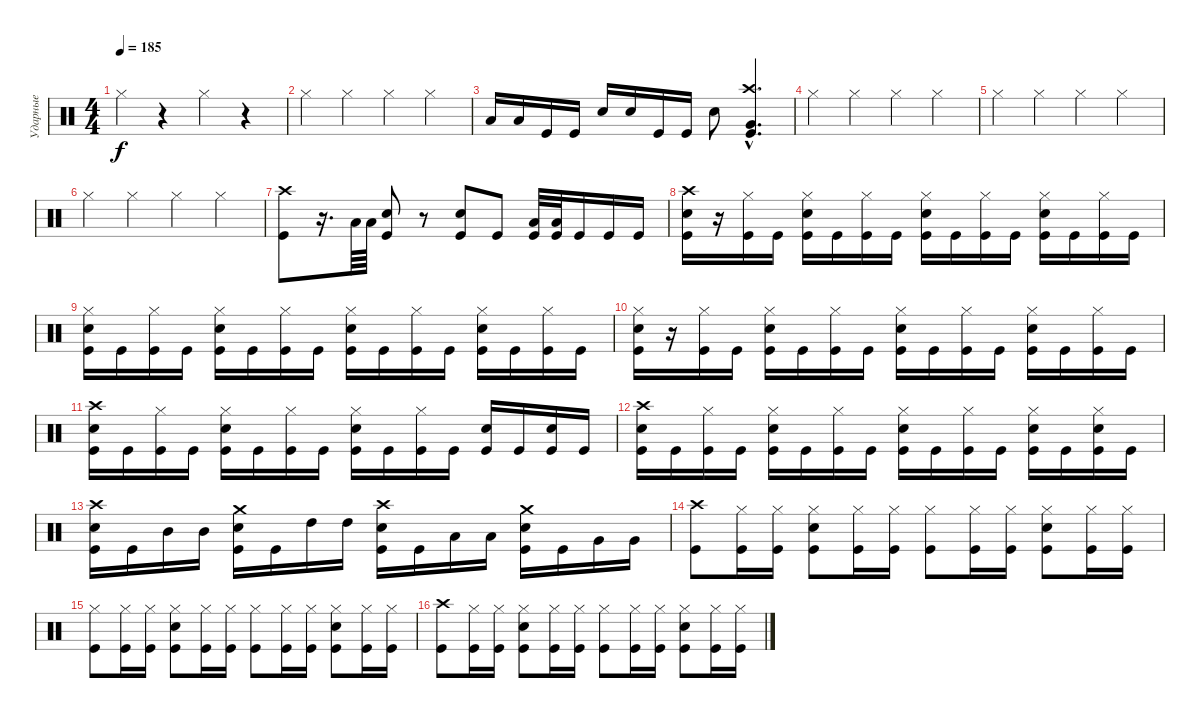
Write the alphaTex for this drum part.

\track ("Ударные" "Ударные") {instrument percussion}
\staff {score}
\articulation defaults
\ts (4 4)
\tempo 185
\clef neutral
\ks c "Hi-Hat (closed)".4{dy f}
r.4 "Hi-Hat (closed)".4 r.4 |
"Hi-Hat (closed)".4 "Hi-Hat (closed)".4 "Hi-Hat (closed)".4 "Hi-Hat (closed)".4 |
"Low Tom (hit)".16 "Low Tom (hit)".16 "Kick (hit)".16 "Kick (hit)".16 "Electric Snare (hit)".16 "Electric Snare (hit)".16 "Kick (hit)".16 "Kick (hit)".16 "Electric Snare (hit)".8 ("Crash high (hit)"{hac} "Very Low Tom (hit)"{hac} "Kick (hit)"{hac}).4{d} |
"Hi-Hat (closed)".4 "Hi-Hat (closed)".4 "Hi-Hat (closed)".4 "Hi-Hat (closed)".4 |
"Hi-Hat (closed)".4 "Hi-Hat (closed)".4 "Hi-Hat (closed)".4 "Hi-Hat (closed)".4 |
"Hi-Hat (closed)".4 "Hi-Hat (closed)".4 "Hi-Hat (closed)".4 "Hi-Hat (closed)".4 |
("Crash high (hit)" "Kick (hit)").8 r.16{d} "Low Tom (hit)".64 "Low Tom (hit)".64 ("Electric Snare (hit)" "Kick (hit)").8 r.8 ("Electric Snare (hit)" "Kick (hit)").8 "Kick (hit)".8 ("Low Tom (hit)" "Kick (hit)").32 ("Low Tom (hit)" "Kick (hit)").32 "Kick (hit)".16 "Kick (hit)".16 "Kick (hit)".16 |
("Crash high (hit)" "Electric Snare (hit)" "Kick (hit)").16 r.16 ("Hi-Hat (closed)" "Kick (hit)").16 "Kick (hit)".16 ("Hi-Hat (closed)" "Electric Snare (hit)" "Kick (hit)").16 "Kick (hit)".16 ("Hi-Hat (closed)" "Kick (hit)").16 "Kick (hit)".16 ("Hi-Hat (closed)" "Electric Snare (hit)" "Kick (hit)").16 "Kick (hit)".16 ("Hi-Hat (closed)" "Kick (hit)").16 "Kick (hit)".16 ("Hi-Hat (closed)" "Electric Snare (hit)" "Kick (hit)").16 "Kick (hit)".16 ("Hi-Hat (closed)" "Kick (hit)").16 "Kick (hit)".16 |
("Hi-Hat (closed)" "Electric Snare (hit)" "Kick (hit)").16 "Kick (hit)".16 ("Hi-Hat (closed)" "Kick (hit)").16 "Kick (hit)".16 ("Hi-Hat (closed)" "Electric Snare (hit)" "Kick (hit)").16 "Kick (hit)".16 ("Hi-Hat (closed)" "Kick (hit)").16 "Kick (hit)".16 ("Hi-Hat (closed)" "Electric Snare (hit)" "Kick (hit)").16 "Kick (hit)".16 ("Hi-Hat (closed)" "Kick (hit)").16 "Kick (hit)".16 ("Hi-Hat (closed)" "Electric Snare (hit)" "Kick (hit)").16 "Kick (hit)".16 ("Hi-Hat (closed)" "Kick (hit)").16 "Kick (hit)".16 |
("Hi-Hat (closed)" "Electric Snare (hit)" "Kick (hit)").16 r.16 ("Hi-Hat (closed)" "Kick (hit)").16 "Kick (hit)".16 ("Hi-Hat (closed)" "Electric Snare (hit)" "Kick (hit)").16 "Kick (hit)".16 ("Hi-Hat (closed)" "Kick (hit)").16 "Kick (hit)".16 ("Hi-Hat (closed)" "Electric Snare (hit)" "Kick (hit)").16 "Kick (hit)".16 ("Hi-Hat (closed)" "Kick (hit)").16 "Kick (hit)".16 ("Hi-Hat (closed)" "Electric Snare (hit)" "Kick (hit)").16 "Kick (hit)".16 ("Hi-Hat (closed)" "Kick (hit)").16 "Kick (hit)".16 |
("Crash high (hit)" "Electric Snare (hit)" "Kick (hit)").16 "Kick (hit)".16 ("Hi-Hat (closed)" "Kick (hit)").16 "Kick (hit)".16 ("Hi-Hat (closed)" "Electric Snare (hit)" "Kick (hit)").16 "Kick (hit)".16 ("Hi-Hat (closed)" "Kick (hit)").16 "Kick (hit)".16 ("Hi-Hat (closed)" "Electric Snare (hit)" "Kick (hit)").16 "Kick (hit)".16 ("Hi-Hat (closed)" "Kick (hit)").16 "Kick (hit)".16 ("Electric Snare (hit)" "Kick (hit)").16 "Kick (hit)".16 ("Electric Snare (hit)" "Kick (hit)").16 "Kick (hit)".16 |
("Crash high (hit)" "Electric Snare (hit)" "Kick (hit)").16 "Kick (hit)".16 ("Hi-Hat (closed)" "Kick (hit)").16 "Kick (hit)".16 ("Hi-Hat (closed)" "Electric Snare (hit)" "Kick (hit)").16 "Kick (hit)".16 ("Hi-Hat (closed)" "Kick (hit)").16 "Kick (hit)".16 ("Hi-Hat (closed)" "Electric Snare (hit)" "Kick (hit)").16 "Kick (hit)".16 ("Hi-Hat (closed)" "Kick (hit)").16 "Kick (hit)".16 ("Hi-Hat (closed)" "Electric Snare (hit)" "Kick (hit)").16 "Kick (hit)".16 ("Hi-Hat (closed)" "Electric Snare (hit)" "Kick (hit)").16 "Kick (hit)".16 |
("Crash high (hit)" "Electric Snare (hit)" "Kick (hit)").16 "Kick (hit)".16 "Mid Tom (hit)".16 "Mid Tom (hit)".16 ("Crash medium (hit)" "Electric Snare (hit)" "Kick (hit)").16 "Kick (hit)".16 "High Tom (hit)".16 "High Tom (hit)".16 ("Crash high (hit)" "Electric Snare (hit)" "Kick (hit)").16 "Kick (hit)".16 "Low Tom (hit)".16 "Low Tom (hit)".16 ("Crash medium (hit)" "Electric Snare (hit)" "Kick (hit)").16 "Kick (hit)".16 "Very Low Tom (hit)".16 "Very Low Tom (hit)".16 |
("Crash high (hit)" "Kick (hit)").8 ("Hi-Hat (closed)" "Kick (hit)").16 ("Hi-Hat (closed)" "Kick (hit)").16 ("Hi-Hat (closed)" "Electric Snare (hit)" "Kick (hit)").8 ("Hi-Hat (closed)" "Kick (hit)").16 ("Hi-Hat (closed)" "Kick (hit)").16 ("Hi-Hat (closed)" "Kick (hit)").8 ("Hi-Hat (closed)" "Kick (hit)").16 ("Hi-Hat (closed)" "Kick (hit)").16 ("Hi-Hat (closed)" "Electric Snare (hit)" "Kick (hit)").8 ("Hi-Hat (closed)" "Kick (hit)").16 ("Hi-Hat (closed)" "Kick (hit)").16 |
("Hi-Hat (closed)" "Kick (hit)").8 ("Hi-Hat (closed)" "Kick (hit)").16 ("Hi-Hat (closed)" "Kick (hit)").16 ("Hi-Hat (closed)" "Electric Snare (hit)" "Kick (hit)").8 ("Hi-Hat (closed)" "Kick (hit)").16 ("Hi-Hat (closed)" "Kick (hit)").16 ("Hi-Hat (closed)" "Kick (hit)").8 ("Hi-Hat (closed)" "Kick (hit)").16 ("Hi-Hat (closed)" "Kick (hit)").16 ("Hi-Hat (closed)" "Electric Snare (hit)" "Kick (hit)").8 ("Hi-Hat (closed)" "Kick (hit)").16 ("Hi-Hat (closed)" "Kick (hit)").16 |
("Crash high (hit)" "Kick (hit)").8 ("Hi-Hat (closed)" "Kick (hit)").16 ("Hi-Hat (closed)" "Kick (hit)").16 ("Hi-Hat (closed)" "Electric Snare (hit)" "Kick (hit)").8 ("Hi-Hat (closed)" "Kick (hit)").16 ("Hi-Hat (closed)" "Kick (hit)").16 ("Hi-Hat (closed)" "Kick (hit)").8 ("Hi-Hat (closed)" "Kick (hit)").16 ("Hi-Hat (closed)" "Kick (hit)").16 ("Hi-Hat (closed)" "Electric Snare (hit)" "Kick (hit)").8 ("Hi-Hat (closed)" "Kick (hit)").16 ("Hi-Hat (closed)" "Kick (hit)").16
